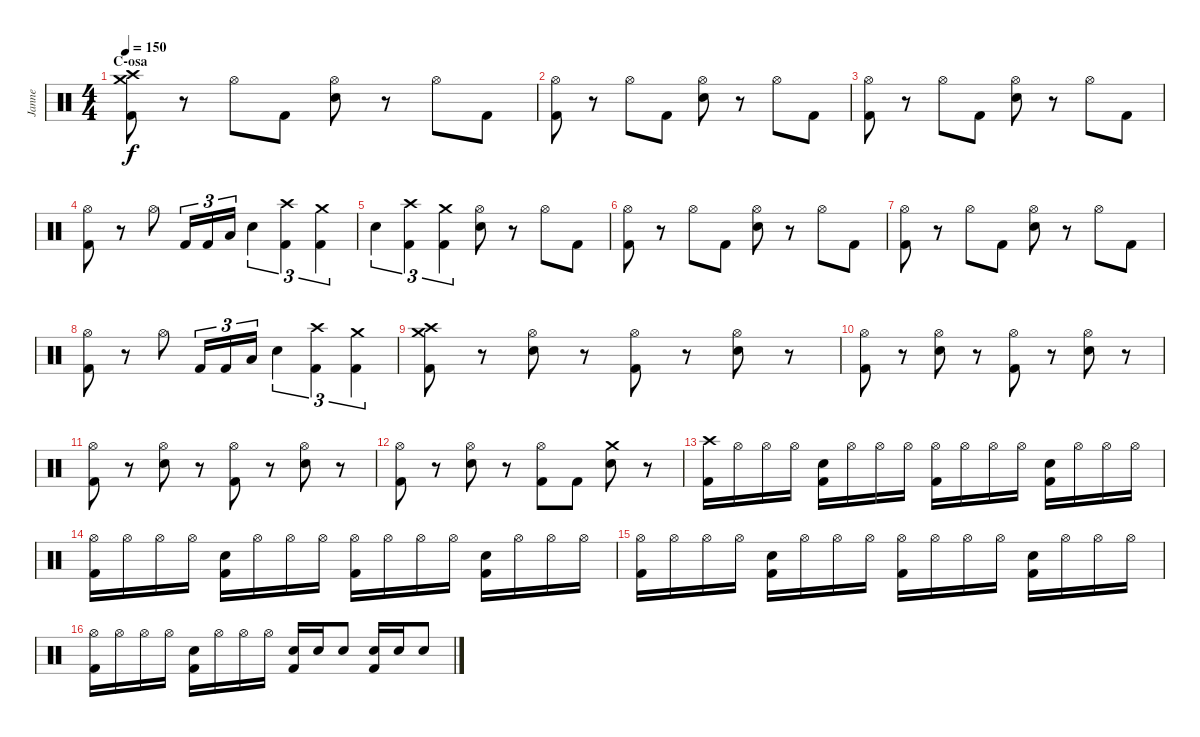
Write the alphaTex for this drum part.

\track ("Janne" "Janne") {instrument percussion}
\staff {score}
\articulation defaults
\ts (4 4)
\section ("" "C-osa")
\tempo 150
\clef neutral
\ks c
("Crash high (hit)" "Crash medium (hit)" "Kick (hit) 2").8{dy f} r.8 "Hi-Hat (open)".8 "Kick (hit) 2".8 ("Hi-Hat (open)" "Electric Snare (hit)").8 r.8 "Hi-Hat (open)".8 "Kick (hit) 2".8 |
("Hi-Hat (open)" "Kick (hit) 2").8 r.8 "Hi-Hat (open)".8 "Kick (hit) 2".8 ("Hi-Hat (open)" "Electric Snare (hit)").8 r.8 "Hi-Hat (open)".8 "Kick (hit) 2".8 |
("Hi-Hat (open)" "Kick (hit) 2").8 r.8 "Hi-Hat (open)".8 "Kick (hit) 2".8 ("Hi-Hat (open)" "Electric Snare (hit)").8 r.8 "Hi-Hat (open)".8 "Kick (hit) 2".8 |
("Hi-Hat (open)" "Kick (hit) 2").8 r.8 "Hi-Hat (open)".8 "Kick (hit) 2".16{tu (3 2)} "Kick (hit) 2".16{tu (3 2)} "Low Floor Tom (hit)".16{tu (3 2)} "Electric Snare (hit)".4{tu (3 2)} ("Crash high (hit)" "Kick (hit) 2").4{tu (3 2)} ("Crash medium (hit)" "Kick (hit) 2").4{tu (3 2)} |
"Electric Snare (hit)".4{tu (3 2)} ("Crash high (hit)" "Kick (hit) 2").4{tu (3 2)} ("Crash medium (hit)" "Kick (hit) 2").4{tu (3 2)} ("Hi-Hat (open)" "Electric Snare (hit)").8 r.8 "Hi-Hat (open)".8 "Kick (hit) 2".8 |
("Hi-Hat (open)" "Kick (hit) 2").8 r.8 "Hi-Hat (open)".8 "Kick (hit) 2".8 ("Hi-Hat (open)" "Electric Snare (hit)").8 r.8 "Hi-Hat (open)".8 "Kick (hit) 2".8 |
("Hi-Hat (open)" "Kick (hit) 2").8 r.8 "Hi-Hat (open)".8 "Kick (hit) 2".8 ("Hi-Hat (open)" "Electric Snare (hit)").8 r.8 "Hi-Hat (open)".8 "Kick (hit) 2".8 |
("Hi-Hat (open)" "Kick (hit) 2").8 r.8 "Hi-Hat (open)".8 "Kick (hit) 2".16{tu (3 2)} "Kick (hit) 2".16{tu (3 2)} "Low Floor Tom (hit)".16{tu (3 2)} "Electric Snare (hit)".4{tu (3 2)} ("Crash high (hit)" "Kick (hit) 2").4{tu (3 2)} ("Crash medium (hit)" "Kick (hit) 2").4{tu (3 2)} |
("Crash high (hit)" "Crash medium (hit)" "Kick (hit) 2").8 r.8 ("Hi-Hat (open)" "Electric Snare (hit)").8 r.8 ("Hi-Hat (open)" "Kick (hit) 2").8 r.8 ("Hi-Hat (open)" "Electric Snare (hit)").8 r.8 |
("Hi-Hat (open)" "Kick (hit) 2").8 r.8 ("Hi-Hat (open)" "Electric Snare (hit)").8 r.8 ("Hi-Hat (open)" "Kick (hit) 2").8 r.8 ("Hi-Hat (open)" "Electric Snare (hit)").8 r.8 |
("Hi-Hat (open)" "Kick (hit) 2").8 r.8 ("Hi-Hat (open)" "Electric Snare (hit)").8 r.8 ("Hi-Hat (open)" "Kick (hit) 2").8 r.8 ("Hi-Hat (open)" "Electric Snare (hit)").8 r.8 |
("Hi-Hat (open)" "Kick (hit) 2").8 r.8 ("Hi-Hat (open)" "Electric Snare (hit)").8 r.8 ("Hi-Hat (open)" "Kick (hit) 2").8 "Kick (hit) 2".8 ("Crash medium (hit)" "Electric Snare (hit)").8 r.8 |
("Crash high (hit)" "Kick (hit) 2").16 "Hi-Hat (open)".16 "Hi-Hat (open)".16 "Hi-Hat (open)".16 ("Electric Snare (hit)" "Kick (hit) 2").16 "Hi-Hat (open)".16 "Hi-Hat (open)".16 "Hi-Hat (open)".16 ("Hi-Hat (open)" "Kick (hit) 2").16 "Hi-Hat (open)".16 "Hi-Hat (open)".16 "Hi-Hat (open)".16 ("Electric Snare (hit)" "Kick (hit) 2").16 "Hi-Hat (open)".16 "Hi-Hat (open)".16 "Hi-Hat (open)".16 |
("Hi-Hat (open)" "Kick (hit) 2").16 "Hi-Hat (open)".16 "Hi-Hat (open)".16 "Hi-Hat (open)".16 ("Electric Snare (hit)" "Kick (hit) 2").16 "Hi-Hat (open)".16 "Hi-Hat (open)".16 "Hi-Hat (open)".16 ("Hi-Hat (open)" "Kick (hit) 2").16 "Hi-Hat (open)".16 "Hi-Hat (open)".16 "Hi-Hat (open)".16 ("Electric Snare (hit)" "Kick (hit) 2").16 "Hi-Hat (open)".16 "Hi-Hat (open)".16 "Hi-Hat (open)".16 |
("Hi-Hat (open)" "Kick (hit) 2").16 "Hi-Hat (open)".16 "Hi-Hat (open)".16 "Hi-Hat (open)".16 ("Electric Snare (hit)" "Kick (hit) 2").16 "Hi-Hat (open)".16 "Hi-Hat (open)".16 "Hi-Hat (open)".16 ("Hi-Hat (open)" "Kick (hit) 2").16 "Hi-Hat (open)".16 "Hi-Hat (open)".16 "Hi-Hat (open)".16 ("Electric Snare (hit)" "Kick (hit) 2").16 "Hi-Hat (open)".16 "Hi-Hat (open)".16 "Hi-Hat (open)".16 |
("Hi-Hat (open)" "Kick (hit) 2").16 "Hi-Hat (open)".16 "Hi-Hat (open)".16 "Hi-Hat (open)".16 ("Electric Snare (hit)" "Kick (hit) 2").16 "Hi-Hat (open)".16 "Hi-Hat (open)".16 "Hi-Hat (open)".16 ("Electric Snare (hit)" "Kick (hit) 2").16 "Electric Snare (hit)".16 "Electric Snare (hit)".8 ("Electric Snare (hit)" "Kick (hit) 2").16 "Electric Snare (hit)".16 "Electric Snare (hit)".8
